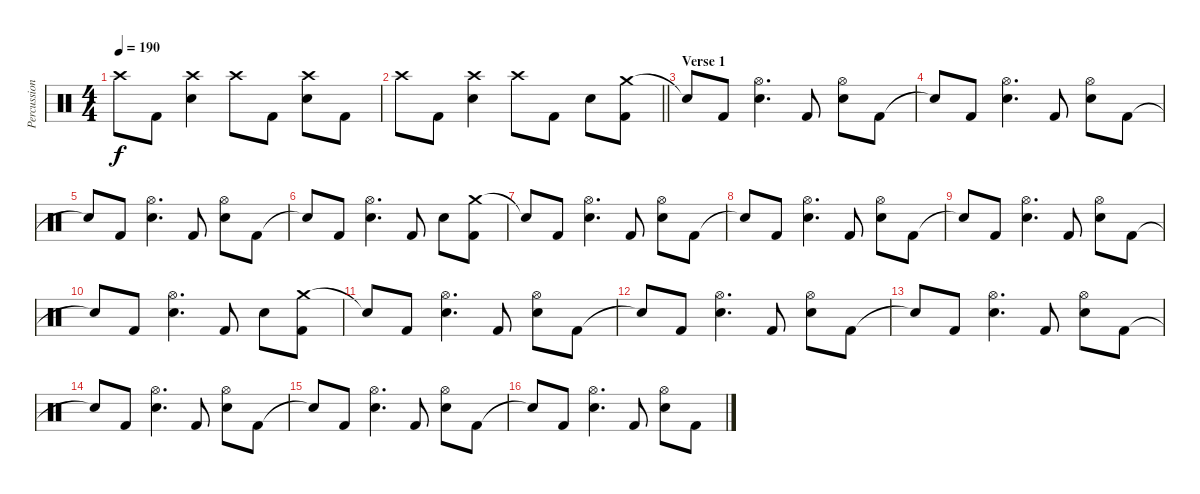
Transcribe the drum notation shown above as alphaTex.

\track ("Percussion" "Percussion") {instrument percussion}
\staff {score}
\articulation defaults
\ts (4 4)
\tempo 190
\clef neutral
\ks c "Crash high (hit)".8{dy f} "Kick (hit) 2".8
("Crash high (hit)" "Electric Snare (hit)").4 "Crash high (hit)".8 "Kick (hit) 2".8 ("Crash high (hit)" "Electric Snare (hit)").8 "Kick (hit) 2".8 |
\barLineRight lightlight "Crash high (hit)".8 "Kick (hit) 2".8
("Crash high (hit)" "Electric Snare (hit)").4 "Crash high (hit)".8 "Kick (hit) 2".8 "Electric Snare (hit)".8 ("Crash medium (hit)" "Kick (hit) 2").8 |
\section ("" "Verse 1")
"Snare (hit)"{t}.8 "Kick (hit) 2".8 ("Hi-Hat (open)" "Electric Snare (hit)").4{d} "Kick (hit) 2".8 ("Hi-Hat (open)" "Electric Snare (hit)").8 "Kick (hit) 2".8 |
"Snare (hit)"{t}.8 "Kick (hit) 2".8 ("Hi-Hat (open)" "Electric Snare (hit)").4{d} "Kick (hit) 2".8 ("Hi-Hat (open)" "Electric Snare (hit)").8 "Kick (hit) 2".8 |
"Snare (hit)"{t}.8 "Kick (hit) 2".8 ("Hi-Hat (open)" "Electric Snare (hit)").4{d} "Kick (hit) 2".8 ("Hi-Hat (open)" "Electric Snare (hit)").8 "Kick (hit) 2".8 |
"Snare (hit)"{t}.8 "Kick (hit) 2".8 ("Hi-Hat (open)" "Electric Snare (hit)").4{d} "Kick (hit) 2".8 "Electric Snare (hit)".8 ("Crash medium (hit)" "Kick (hit) 2").8 |
"Snare (hit)"{t}.8 "Kick (hit) 2".8 ("Hi-Hat (open)" "Electric Snare (hit)").4{d} "Kick (hit) 2".8 ("Hi-Hat (open)" "Electric Snare (hit)").8 "Kick (hit) 2".8 |
"Snare (hit)"{t}.8 "Kick (hit) 2".8 ("Hi-Hat (open)" "Electric Snare (hit)").4{d} "Kick (hit) 2".8 ("Hi-Hat (open)" "Electric Snare (hit)").8 "Kick (hit) 2".8 |
"Snare (hit)"{t}.8 "Kick (hit) 2".8 ("Hi-Hat (open)" "Electric Snare (hit)").4{d} "Kick (hit) 2".8 ("Hi-Hat (open)" "Electric Snare (hit)").8 "Kick (hit) 2".8 |
"Snare (hit)"{t}.8 "Kick (hit) 2".8 ("Hi-Hat (open)" "Electric Snare (hit)").4{d} "Kick (hit) 2".8 "Electric Snare (hit)".8 ("Crash medium (hit)" "Kick (hit) 2").8 |
"Snare (hit)"{t}.8 "Kick (hit) 2".8 ("Hi-Hat (open)" "Electric Snare (hit)").4{d} "Kick (hit) 2".8 ("Hi-Hat (open)" "Electric Snare (hit)").8 "Kick (hit) 2".8 |
"Snare (hit)"{t}.8 "Kick (hit) 2".8 ("Hi-Hat (open)" "Electric Snare (hit)").4{d} "Kick (hit) 2".8 ("Hi-Hat (open)" "Electric Snare (hit)").8 "Kick (hit) 2".8 |
"Snare (hit)"{t}.8 "Kick (hit) 2".8 ("Hi-Hat (open)" "Electric Snare (hit)").4{d} "Kick (hit) 2".8 ("Hi-Hat (open)" "Electric Snare (hit)").8 "Kick (hit) 2".8 |
"Snare (hit)"{t}.8 "Kick (hit) 2".8 ("Hi-Hat (open)" "Electric Snare (hit)").4{d} "Kick (hit) 2".8 ("Hi-Hat (open)" "Electric Snare (hit)").8 "Kick (hit) 2".8 |
"Snare (hit)"{t}.8 "Kick (hit) 2".8 ("Hi-Hat (open)" "Electric Snare (hit)").4{d} "Kick (hit) 2".8 ("Hi-Hat (open)" "Electric Snare (hit)").8 "Kick (hit) 2".8 |
"Snare (hit)"{t}.8 "Kick (hit) 2".8 ("Hi-Hat (open)" "Electric Snare (hit)").4{d} "Kick (hit) 2".8 ("Hi-Hat (open)" "Electric Snare (hit)").8 "Kick (hit) 2".8
